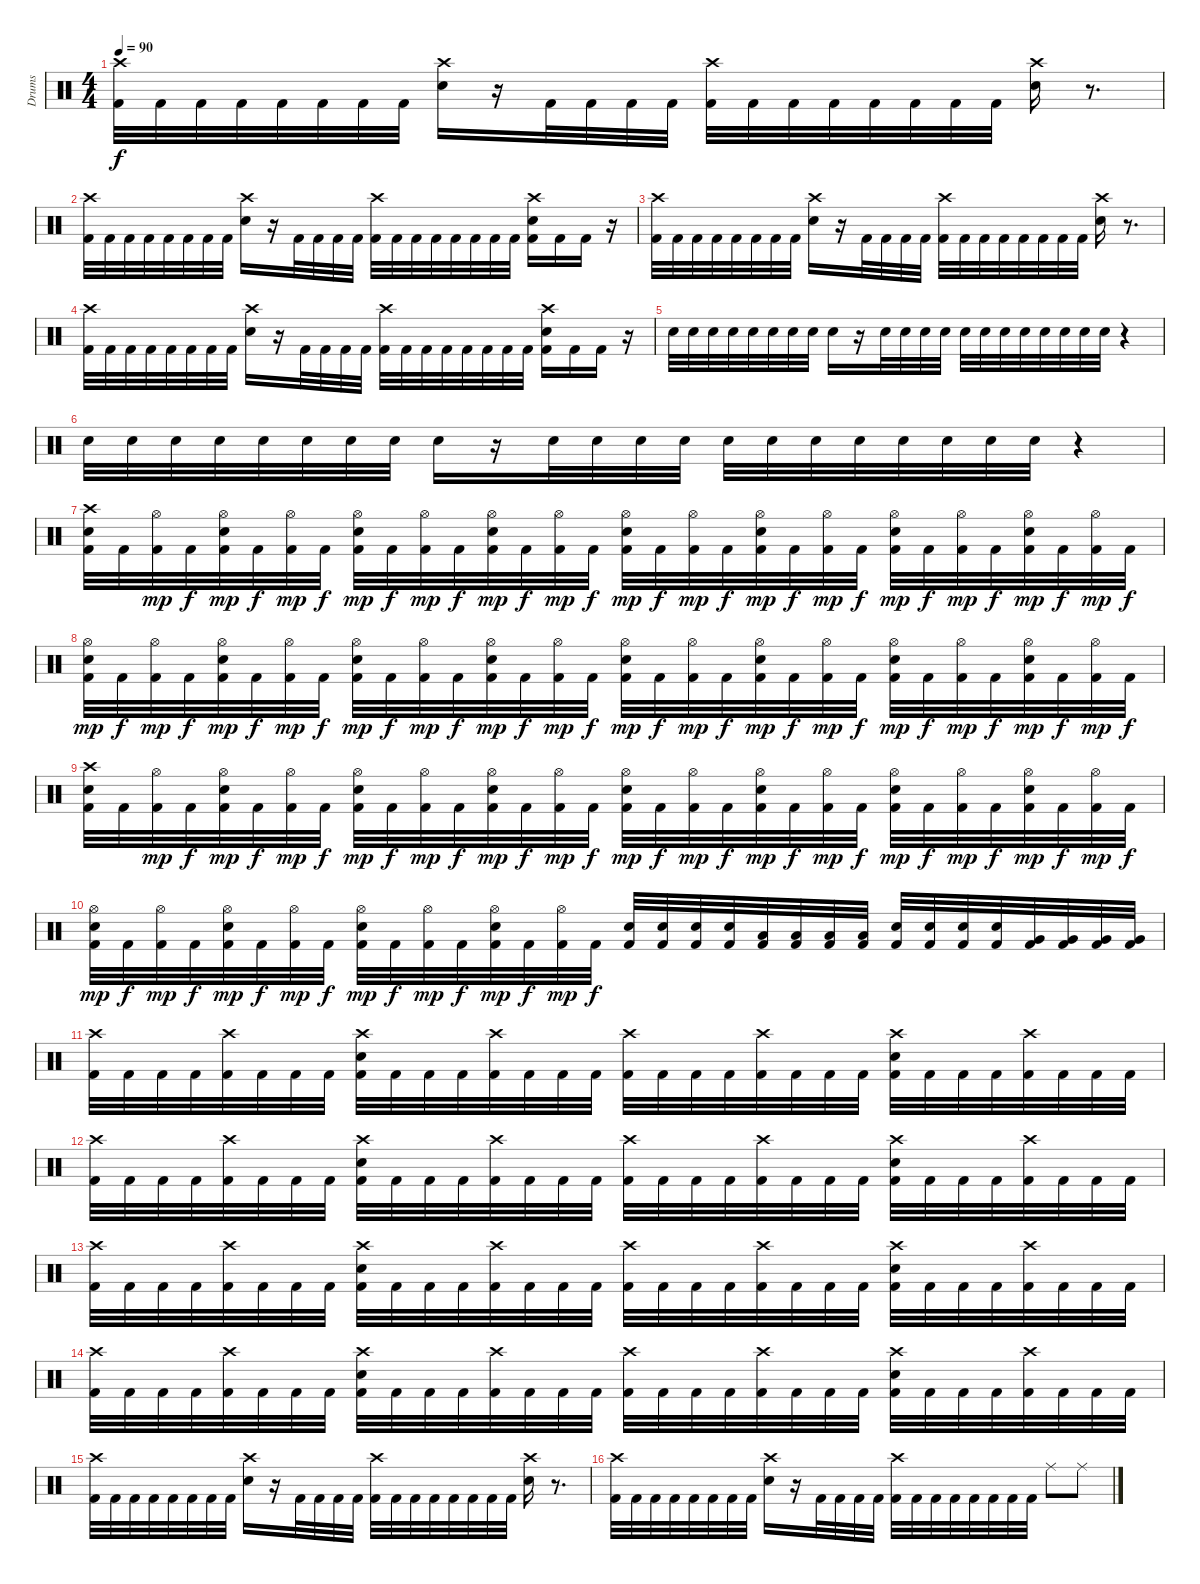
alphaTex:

\track ("Drums" "Drums") {instrument percussion}
\staff {score}
\articulation defaults
\ts (4 4)
\tempo 90
\clef neutral
\ks c
("Crash high (hit)" "Kick (hit) 2").32{dy f} "Kick (hit) 2".32 "Kick (hit) 2".32 "Kick (hit) 2".32 "Kick (hit) 2".32 "Kick (hit) 2".32 "Kick (hit) 2".32 "Kick (hit) 2".32 ("Crash high (hit)" "Electric Snare (hit)").16 r.16 "Kick (hit) 2".32 "Kick (hit) 2".32 "Kick (hit) 2".32 "Kick (hit) 2".32 ("Crash high (hit)" "Kick (hit) 2").32 "Kick (hit) 2".32 "Kick (hit) 2".32 "Kick (hit) 2".32 "Kick (hit) 2".32 "Kick (hit) 2".32 "Kick (hit) 2".32 "Kick (hit) 2".32 ("Crash high (hit)" "Electric Snare (hit)").16 r.8{d} |
("Crash high (hit)" "Kick (hit) 2").32 "Kick (hit) 2".32 "Kick (hit) 2".32 "Kick (hit) 2".32 "Kick (hit) 2".32 "Kick (hit) 2".32 "Kick (hit) 2".32 "Kick (hit) 2".32 ("Crash high (hit)" "Electric Snare (hit)").16 r.16 "Kick (hit) 2".32 "Kick (hit) 2".32 "Kick (hit) 2".32 "Kick (hit) 2".32 ("Crash high (hit)" "Kick (hit) 2").32 "Kick (hit) 2".32 "Kick (hit) 2".32 "Kick (hit) 2".32 "Kick (hit) 2".32 "Kick (hit) 2".32 "Kick (hit) 2".32 "Kick (hit) 2".32 ("Crash high (hit)" "Electric Snare (hit)" "Kick (hit) 2").16 "Kick (hit) 2".16 "Kick (hit) 2".16 r.16 |
("Crash high (hit)" "Kick (hit) 2").32 "Kick (hit) 2".32 "Kick (hit) 2".32 "Kick (hit) 2".32 "Kick (hit) 2".32 "Kick (hit) 2".32 "Kick (hit) 2".32 "Kick (hit) 2".32 ("Crash high (hit)" "Electric Snare (hit)").16 r.16 "Kick (hit) 2".32 "Kick (hit) 2".32 "Kick (hit) 2".32 "Kick (hit) 2".32 ("Crash high (hit)" "Kick (hit) 2").32 "Kick (hit) 2".32 "Kick (hit) 2".32 "Kick (hit) 2".32 "Kick (hit) 2".32 "Kick (hit) 2".32 "Kick (hit) 2".32 "Kick (hit) 2".32 ("Crash high (hit)" "Electric Snare (hit)").16 r.8{d} |
("Crash high (hit)" "Kick (hit) 2").32 "Kick (hit) 2".32 "Kick (hit) 2".32 "Kick (hit) 2".32 "Kick (hit) 2".32 "Kick (hit) 2".32 "Kick (hit) 2".32 "Kick (hit) 2".32 ("Crash high (hit)" "Electric Snare (hit)").16 r.16 "Kick (hit) 2".32 "Kick (hit) 2".32 "Kick (hit) 2".32 "Kick (hit) 2".32 ("Crash high (hit)" "Kick (hit) 2").32 "Kick (hit) 2".32 "Kick (hit) 2".32 "Kick (hit) 2".32 "Kick (hit) 2".32 "Kick (hit) 2".32 "Kick (hit) 2".32 "Kick (hit) 2".32 ("Crash high (hit)" "Electric Snare (hit)" "Kick (hit) 2").16 "Kick (hit) 2".16 "Kick (hit) 2".16 r.16 |
"Electric Snare (hit)".32 "Electric Snare (hit)".32 "Electric Snare (hit)".32 "Electric Snare (hit)".32 "Electric Snare (hit)".32 "Electric Snare (hit)".32 "Electric Snare (hit)".32 "Electric Snare (hit)".32 "Electric Snare (hit)".16 r.16 "Electric Snare (hit)".32 "Electric Snare (hit)".32 "Electric Snare (hit)".32 "Electric Snare (hit)".32 "Electric Snare (hit)".32 "Electric Snare (hit)".32 "Electric Snare (hit)".32 "Electric Snare (hit)".32 "Electric Snare (hit)".32 "Electric Snare (hit)".32 "Electric Snare (hit)".32 "Electric Snare (hit)".32 r.4 |
"Electric Snare (hit)".32 "Electric Snare (hit)".32 "Electric Snare (hit)".32 "Electric Snare (hit)".32 "Electric Snare (hit)".32 "Electric Snare (hit)".32 "Electric Snare (hit)".32 "Electric Snare (hit)".32 "Electric Snare (hit)".16 r.16 "Electric Snare (hit)".32 "Electric Snare (hit)".32 "Electric Snare (hit)".32 "Electric Snare (hit)".32 "Electric Snare (hit)".32 "Electric Snare (hit)".32 "Electric Snare (hit)".32 "Electric Snare (hit)".32 "Electric Snare (hit)".32 "Electric Snare (hit)".32 "Electric Snare (hit)".32 "Electric Snare (hit)".32 r.4 |
("Crash high (hit)" "Electric Snare (hit)" "Kick (hit) 2").32 "Kick (hit) 2".32 ("Hi-Hat (open)" "Kick (hit) 2").32{dy mp} "Kick (hit) 2".32{dy f} ("Hi-Hat (open)" "Electric Snare (hit)" "Kick (hit) 2").32{dy mp} "Kick (hit) 2".32{dy f} ("Hi-Hat (open)" "Kick (hit) 2").32{dy mp} "Kick (hit) 2".32{dy f} ("Hi-Hat (open)" "Electric Snare (hit)" "Kick (hit) 2").32{dy mp} "Kick (hit) 2".32{dy f} ("Hi-Hat (open)" "Kick (hit) 2").32{dy mp} "Kick (hit) 2".32{dy f} ("Hi-Hat (open)" "Electric Snare (hit)" "Kick (hit) 2").32{dy mp} "Kick (hit) 2".32{dy f} ("Hi-Hat (open)" "Kick (hit) 2").32{dy mp} "Kick (hit) 2".32{dy f} ("Hi-Hat (open)" "Electric Snare (hit)" "Kick (hit) 2").32{dy mp} "Kick (hit) 2".32{dy f} ("Hi-Hat (open)" "Kick (hit) 2").32{dy mp} "Kick (hit) 2".32{dy f} ("Hi-Hat (open)" "Electric Snare (hit)" "Kick (hit) 2").32{dy mp} "Kick (hit) 2".32{dy f} ("Hi-Hat (open)" "Kick (hit) 2").32{dy mp} "Kick (hit) 2".32{dy f} ("Hi-Hat (open)" "Electric Snare (hit)" "Kick (hit) 2").32{dy mp} "Kick (hit) 2".32{dy f} ("Hi-Hat (open)" "Kick (hit) 2").32{dy mp} "Kick (hit) 2".32{dy f} ("Hi-Hat (open)" "Electric Snare (hit)" "Kick (hit) 2").32{dy mp} "Kick (hit) 2".32{dy f} ("Hi-Hat (open)" "Kick (hit) 2").32{dy mp} "Kick (hit) 2".32{dy f} |
("Hi-Hat (open)" "Electric Snare (hit)" "Kick (hit) 2").32{dy mp} "Kick (hit) 2".32{dy f} ("Hi-Hat (open)" "Kick (hit) 2").32{dy mp} "Kick (hit) 2".32{dy f} ("Hi-Hat (open)" "Electric Snare (hit)" "Kick (hit) 2").32{dy mp} "Kick (hit) 2".32{dy f} ("Hi-Hat (open)" "Kick (hit) 2").32{dy mp} "Kick (hit) 2".32{dy f} ("Hi-Hat (open)" "Electric Snare (hit)" "Kick (hit) 2").32{dy mp} "Kick (hit) 2".32{dy f} ("Hi-Hat (open)" "Kick (hit) 2").32{dy mp} "Kick (hit) 2".32{dy f} ("Hi-Hat (open)" "Electric Snare (hit)" "Kick (hit) 2").32{dy mp} "Kick (hit) 2".32{dy f} ("Hi-Hat (open)" "Kick (hit) 2").32{dy mp} "Kick (hit) 2".32{dy f} ("Hi-Hat (open)" "Electric Snare (hit)" "Kick (hit) 2").32{dy mp} "Kick (hit) 2".32{dy f} ("Hi-Hat (open)" "Kick (hit) 2").32{dy mp} "Kick (hit) 2".32{dy f} ("Hi-Hat (open)" "Electric Snare (hit)" "Kick (hit) 2").32{dy mp} "Kick (hit) 2".32{dy f} ("Hi-Hat (open)" "Kick (hit) 2").32{dy mp} "Kick (hit) 2".32{dy f} ("Hi-Hat (open)" "Electric Snare (hit)" "Kick (hit) 2").32{dy mp} "Kick (hit) 2".32{dy f} ("Hi-Hat (open)" "Kick (hit) 2").32{dy mp} "Kick (hit) 2".32{dy f} ("Hi-Hat (open)" "Electric Snare (hit)" "Kick (hit) 2").32{dy mp} "Kick (hit) 2".32{dy f} ("Hi-Hat (open)" "Kick (hit) 2").32{dy mp} "Kick (hit) 2".32{dy f} |
("Crash high (hit)" "Electric Snare (hit)" "Kick (hit) 2").32 "Kick (hit) 2".32 ("Hi-Hat (open)" "Kick (hit) 2").32{dy mp} "Kick (hit) 2".32{dy f} ("Hi-Hat (open)" "Electric Snare (hit)" "Kick (hit) 2").32{dy mp} "Kick (hit) 2".32{dy f} ("Hi-Hat (open)" "Kick (hit) 2").32{dy mp} "Kick (hit) 2".32{dy f} ("Hi-Hat (open)" "Electric Snare (hit)" "Kick (hit) 2").32{dy mp} "Kick (hit) 2".32{dy f} ("Hi-Hat (open)" "Kick (hit) 2").32{dy mp} "Kick (hit) 2".32{dy f} ("Hi-Hat (open)" "Electric Snare (hit)" "Kick (hit) 2").32{dy mp} "Kick (hit) 2".32{dy f} ("Hi-Hat (open)" "Kick (hit) 2").32{dy mp} "Kick (hit) 2".32{dy f} ("Hi-Hat (open)" "Electric Snare (hit)" "Kick (hit) 2").32{dy mp} "Kick (hit) 2".32{dy f} ("Hi-Hat (open)" "Kick (hit) 2").32{dy mp} "Kick (hit) 2".32{dy f} ("Hi-Hat (open)" "Electric Snare (hit)" "Kick (hit) 2").32{dy mp} "Kick (hit) 2".32{dy f} ("Hi-Hat (open)" "Kick (hit) 2").32{dy mp} "Kick (hit) 2".32{dy f} ("Hi-Hat (open)" "Electric Snare (hit)" "Kick (hit) 2").32{dy mp} "Kick (hit) 2".32{dy f} ("Hi-Hat (open)" "Kick (hit) 2").32{dy mp} "Kick (hit) 2".32{dy f} ("Hi-Hat (open)" "Electric Snare (hit)" "Kick (hit) 2").32{dy mp} "Kick (hit) 2".32{dy f} ("Hi-Hat (open)" "Kick (hit) 2").32{dy mp} "Kick (hit) 2".32{dy f} |
("Hi-Hat (open)" "Electric Snare (hit)" "Kick (hit) 2").32{dy mp} "Kick (hit) 2".32{dy f} ("Hi-Hat (open)" "Kick (hit) 2").32{dy mp} "Kick (hit) 2".32{dy f} ("Hi-Hat (open)" "Electric Snare (hit)" "Kick (hit) 2").32{dy mp} "Kick (hit) 2".32{dy f} ("Hi-Hat (open)" "Kick (hit) 2").32{dy mp} "Kick (hit) 2".32{dy f} ("Hi-Hat (open)" "Electric Snare (hit)" "Kick (hit) 2").32{dy mp} "Kick (hit) 2".32{dy f} ("Hi-Hat (open)" "Kick (hit) 2").32{dy mp} "Kick (hit) 2".32{dy f} ("Hi-Hat (open)" "Electric Snare (hit)" "Kick (hit) 2").32{dy mp} "Kick (hit) 2".32{dy f} ("Hi-Hat (open)" "Kick (hit) 2").32{dy mp} "Kick (hit) 2".32{dy f} ("Electric Snare (hit)" "Kick (hit) 2").32 ("Electric Snare (hit)" "Kick (hit) 2").32 ("Electric Snare (hit)" "Kick (hit) 2").32 ("Electric Snare (hit)" "Kick (hit) 2").32 ("Low Tom (hit)" "Kick (hit) 2").32 ("Low Tom (hit)" "Kick (hit) 2").32 ("Low Tom (hit)" "Kick (hit) 2").32 ("Low Tom (hit)" "Kick (hit) 2").32 ("Electric Snare (hit)" "Kick (hit) 2").32 ("Electric Snare (hit)" "Kick (hit) 2").32 ("Electric Snare (hit)" "Kick (hit) 2").32 ("Electric Snare (hit)" "Kick (hit) 2").32 ("Very Low Tom (hit)" "Kick (hit) 2").32 ("Very Low Tom (hit)" "Kick (hit) 2").32 ("Very Low Tom (hit)" "Kick (hit) 2").32 ("Very Low Tom (hit)" "Kick (hit) 2").32 |
("Crash high (hit)" "Kick (hit) 2").32 "Kick (hit) 2".32 "Kick (hit) 2".32 "Kick (hit) 2".32 ("Crash high (hit)" "Kick (hit) 2").32 "Kick (hit) 2".32 "Kick (hit) 2".32 "Kick (hit) 2".32 ("Crash high (hit)" "Electric Snare (hit)" "Kick (hit) 2").32 "Kick (hit) 2".32 "Kick (hit) 2".32 "Kick (hit) 2".32 ("Crash high (hit)" "Kick (hit) 2").32 "Kick (hit) 2".32 "Kick (hit) 2".32 "Kick (hit) 2".32 ("Crash high (hit)" "Kick (hit) 2").32 "Kick (hit) 2".32 "Kick (hit) 2".32 "Kick (hit) 2".32 ("Crash high (hit)" "Kick (hit) 2").32 "Kick (hit) 2".32 "Kick (hit) 2".32 "Kick (hit) 2".32 ("Crash high (hit)" "Electric Snare (hit)" "Kick (hit) 2").32 "Kick (hit) 2".32 "Kick (hit) 2".32 "Kick (hit) 2".32 ("Crash high (hit)" "Kick (hit) 2").32 "Kick (hit) 2".32 "Kick (hit) 2".32 "Kick (hit) 2".32 |
("Crash high (hit)" "Kick (hit) 2").32 "Kick (hit) 2".32 "Kick (hit) 2".32 "Kick (hit) 2".32 ("Crash high (hit)" "Kick (hit) 2").32 "Kick (hit) 2".32 "Kick (hit) 2".32 "Kick (hit) 2".32 ("Crash high (hit)" "Electric Snare (hit)" "Kick (hit) 2").32 "Kick (hit) 2".32 "Kick (hit) 2".32 "Kick (hit) 2".32 ("Crash high (hit)" "Kick (hit) 2").32 "Kick (hit) 2".32 "Kick (hit) 2".32 "Kick (hit) 2".32 ("Crash high (hit)" "Kick (hit) 2").32 "Kick (hit) 2".32 "Kick (hit) 2".32 "Kick (hit) 2".32 ("Crash high (hit)" "Kick (hit) 2").32 "Kick (hit) 2".32 "Kick (hit) 2".32 "Kick (hit) 2".32 ("Crash high (hit)" "Electric Snare (hit)" "Kick (hit) 2").32 "Kick (hit) 2".32 "Kick (hit) 2".32 "Kick (hit) 2".32 ("Crash high (hit)" "Kick (hit) 2").32 "Kick (hit) 2".32 "Kick (hit) 2".32 "Kick (hit) 2".32 |
("Crash high (hit)" "Kick (hit) 2").32 "Kick (hit) 2".32 "Kick (hit) 2".32 "Kick (hit) 2".32 ("Crash high (hit)" "Kick (hit) 2").32 "Kick (hit) 2".32 "Kick (hit) 2".32 "Kick (hit) 2".32 ("Crash high (hit)" "Electric Snare (hit)" "Kick (hit) 2").32 "Kick (hit) 2".32 "Kick (hit) 2".32 "Kick (hit) 2".32 ("Crash high (hit)" "Kick (hit) 2").32 "Kick (hit) 2".32 "Kick (hit) 2".32 "Kick (hit) 2".32 ("Crash high (hit)" "Kick (hit) 2").32 "Kick (hit) 2".32 "Kick (hit) 2".32 "Kick (hit) 2".32 ("Crash high (hit)" "Kick (hit) 2").32 "Kick (hit) 2".32 "Kick (hit) 2".32 "Kick (hit) 2".32 ("Crash high (hit)" "Electric Snare (hit)" "Kick (hit) 2").32 "Kick (hit) 2".32 "Kick (hit) 2".32 "Kick (hit) 2".32 ("Crash high (hit)" "Kick (hit) 2").32 "Kick (hit) 2".32 "Kick (hit) 2".32 "Kick (hit) 2".32 |
("Crash high (hit)" "Kick (hit) 2").32 "Kick (hit) 2".32 "Kick (hit) 2".32 "Kick (hit) 2".32 ("Crash high (hit)" "Kick (hit) 2").32 "Kick (hit) 2".32 "Kick (hit) 2".32 "Kick (hit) 2".32 ("Crash high (hit)" "Electric Snare (hit)" "Kick (hit) 2").32 "Kick (hit) 2".32 "Kick (hit) 2".32 "Kick (hit) 2".32 ("Crash high (hit)" "Kick (hit) 2").32 "Kick (hit) 2".32 "Kick (hit) 2".32 "Kick (hit) 2".32 ("Crash high (hit)" "Kick (hit) 2").32 "Kick (hit) 2".32 "Kick (hit) 2".32 "Kick (hit) 2".32 ("Crash high (hit)" "Kick (hit) 2").32 "Kick (hit) 2".32 "Kick (hit) 2".32 "Kick (hit) 2".32 ("Crash high (hit)" "Electric Snare (hit)" "Kick (hit) 2").32 "Kick (hit) 2".32 "Kick (hit) 2".32 "Kick (hit) 2".32 ("Crash high (hit)" "Kick (hit) 2").32 "Kick (hit) 2".32 "Kick (hit) 2".32 "Kick (hit) 2".32 |
("Crash high (hit)" "Kick (hit) 2").32 "Kick (hit) 2".32 "Kick (hit) 2".32 "Kick (hit) 2".32 "Kick (hit) 2".32 "Kick (hit) 2".32 "Kick (hit) 2".32 "Kick (hit) 2".32 ("Crash high (hit)" "Electric Snare (hit)").16 r.16 "Kick (hit) 2".32 "Kick (hit) 2".32 "Kick (hit) 2".32 "Kick (hit) 2".32 ("Crash high (hit)" "Kick (hit) 2").32 "Kick (hit) 2".32 "Kick (hit) 2".32 "Kick (hit) 2".32 "Kick (hit) 2".32 "Kick (hit) 2".32 "Kick (hit) 2".32 "Kick (hit) 2".32 ("Crash high (hit)" "Electric Snare (hit)").16 r.8{d} |
("Crash high (hit)" "Kick (hit) 2").32 "Kick (hit) 2".32 "Kick (hit) 2".32 "Kick (hit) 2".32 "Kick (hit) 2".32 "Kick (hit) 2".32 "Kick (hit) 2".32 "Kick (hit) 2".32 ("Crash high (hit)" "Electric Snare (hit)").16 r.16 "Kick (hit) 2".32 "Kick (hit) 2".32 "Kick (hit) 2".32 "Kick (hit) 2".32 ("Crash high (hit)" "Kick (hit) 2").32 "Kick (hit) 2".32 "Kick (hit) 2".32 "Kick (hit) 2".32 "Kick (hit) 2".32 "Kick (hit) 2".32 "Kick (hit) 2".32 "Kick (hit) 2".32 "Ride (middle)".8 "Ride (middle)".8
